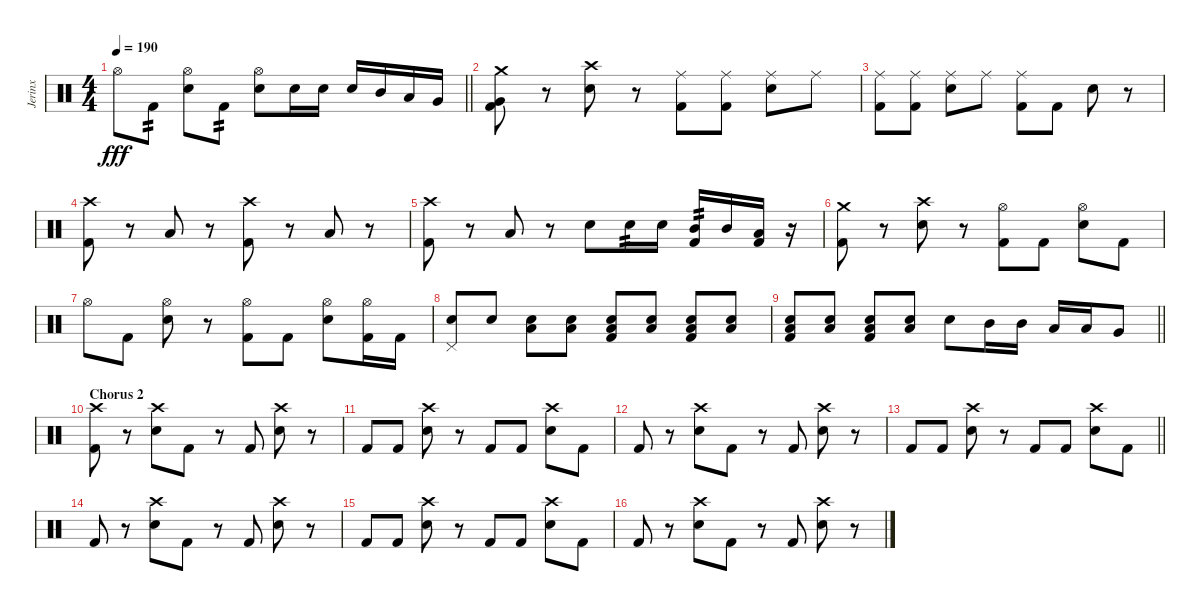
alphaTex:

\track ("Jerinx" "Jerinx") {instrument percussion}
\staff {score}
\articulation defaults
\ts (4 4)
\tempo 190
\clef neutral
\barLineRight lightlight
\ks c "Hi-Hat (open)".8{dy fff} "Kick (hit) 2".8{tp 2}
("Hi-Hat (open)" "Electric Snare (hit)").8 "Kick (hit) 2".8{tp 2} ("Hi-Hat (open)" "Electric Snare (hit)").8 "Electric Snare (hit)".16 "Electric Snare (hit)".16 "Electric Snare (hit)".16 "Mid Tom (hit)".16 "Low Tom (hit)".16 "Very Low Tom (hit)".16 |
\section ("" "")
("Very Low Tom (hit)" "Kick (hit) 2" "Crash medium (hit)").8 r.8 ("Electric Snare (hit)" "Crash high (hit)").8 r.8 ("Kick (hit) 2" "Ride (middle)").8 ("Kick (hit) 2" "Ride (middle)").8 ("Electric Snare (hit)" "Ride (middle)").8 "Ride (middle)".8 |
("Kick (hit) 2" "Ride (middle)").8 ("Kick (hit) 2" "Ride (middle)").8 ("Electric Snare (hit)" "Ride (middle)").8 "Ride (middle)".8 ("Kick (hit) 2" "Ride (middle)").8 "Kick (hit) 2".8 "Electric Snare (hit)".8 r.8 |
("Kick (hit) 2" "Crash high (hit)").8 r.8 "Low Tom (hit)".8 r.8 ("Kick (hit) 2" "Crash high (hit)").8 r.8 "Low Tom (hit)".8 r.8 |
("Kick (hit) 2" "Crash high (hit)").8 r.8 "Low Tom (hit)".8 r.8 "Electric Snare (hit)".8 "Electric Snare (hit)".16{tp 2} "Electric Snare (hit)".16 ("Mid Tom (hit)" "Kick (hit) 2").16{tp 2} "Mid Tom (hit)".16 ("Low Tom (hit)" "Kick (hit) 2").16 r.16 |
("Kick (hit) 2" "Crash medium (hit)").8 r.8 ("Electric Snare (hit)" "Crash high (hit)").8 r.8 ("Hi-Hat (open)" "Kick (hit) 2").8 "Kick (hit) 2".8 ("Hi-Hat (open)" "Electric Snare (hit)").8 "Kick (hit) 2".8 |
"Hi-Hat (open)".8 "Kick (hit) 2".8 ("Hi-Hat (open)" "Electric Snare (hit)").8 r.8 ("Hi-Hat (open)" "Kick (hit) 2").8 "Kick (hit) 2".8 ("Hi-Hat (open)" "Electric Snare (hit)").8 ("Hi-Hat (open)" "Kick (hit) 2").16 "Kick (hit) 2".16 |
("Pedal Hi-Hat (hit)" "Electric Snare (hit)").8 "Electric Snare (hit)".8 ("Electric Snare (hit)" "Low Floor Tom (hit)").8 ("Electric Snare (hit)" "Low Floor Tom (hit)").8 ("Electric Snare (hit)" "Kick (hit) 2" "Low Floor Tom (hit)").8 ("Electric Snare (hit)" "Low Floor Tom (hit)").8 ("Electric Snare (hit)" "Kick (hit) 2" "Low Floor Tom (hit)").8 ("Electric Snare (hit)" "Low Floor Tom (hit)").8 |
\barLineRight lightlight
("Electric Snare (hit)" "Kick (hit) 2" "Low Floor Tom (hit)").8 ("Electric Snare (hit)" "Low Floor Tom (hit)").8 ("Electric Snare (hit)" "Kick (hit) 2" "Low Floor Tom (hit)").8 ("Electric Snare (hit)" "Low Floor Tom (hit)").8 "Electric Snare (hit)".8 "Mid Tom (hit)".16 "Mid Tom (hit)".16 "Low Tom (hit)".16 "Low Tom (hit)".16 "Very Low Tom (hit)".8 |
\section ("" "Chorus 2")
("Kick (hit) 2" "Crash high (hit)").8 r.8 ("Electric Snare (hit)" "Crash high (hit)").8 "Kick (hit) 2".8 r.8 "Kick (hit) 2".8 ("Electric Snare (hit)" "Crash high (hit)").8 r.8 |
"Kick (hit) 2".8 "Kick (hit) 2".8 ("Electric Snare (hit)" "Crash high (hit)").8 r.8 "Kick (hit) 2".8 "Kick (hit) 2".8 ("Electric Snare (hit)" "Crash high (hit)").8 "Kick (hit) 2".8 |
"Kick (hit) 2".8 r.8 ("Electric Snare (hit)" "Crash high (hit)").8 "Kick (hit) 2".8 r.8 "Kick (hit) 2".8 ("Electric Snare (hit)" "Crash high (hit)").8 r.8 |
\barLineRight lightlight "Kick (hit) 2".8 "Kick (hit) 2".8
("Electric Snare (hit)" "Crash high (hit)").8 r.8 "Kick (hit) 2".8 "Kick (hit) 2".8 ("Electric Snare (hit)" "Crash high (hit)").8 "Kick (hit) 2".8 |
"Kick (hit) 2".8 r.8 ("Electric Snare (hit)" "Crash high (hit)").8 "Kick (hit) 2".8 r.8 "Kick (hit) 2".8 ("Electric Snare (hit)" "Crash high (hit)").8 r.8 |
"Kick (hit) 2".8 "Kick (hit) 2".8 ("Electric Snare (hit)" "Crash high (hit)").8 r.8 "Kick (hit) 2".8 "Kick (hit) 2".8 ("Electric Snare (hit)" "Crash high (hit)").8 "Kick (hit) 2".8 |
"Kick (hit) 2".8 r.8 ("Electric Snare (hit)" "Crash high (hit)").8 "Kick (hit) 2".8 r.8 "Kick (hit) 2".8 ("Electric Snare (hit)" "Crash high (hit)").8 r.8
